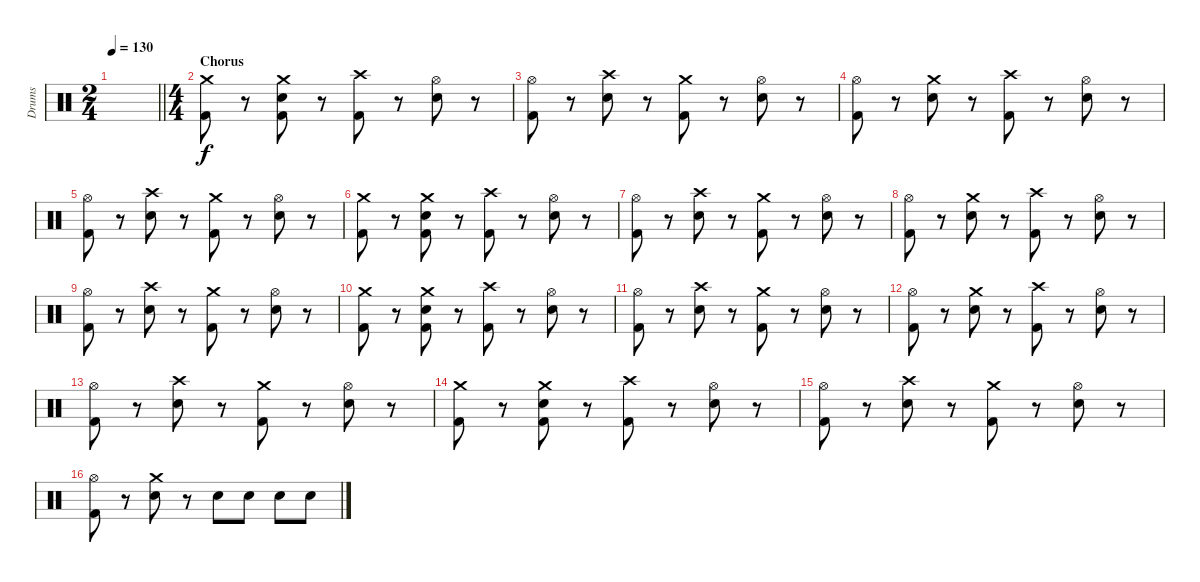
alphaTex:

\track ("Drums" "Drums") {instrument percussion}
\staff {score}
\articulation defaults
\ts (2 4)
\tempo 130
\clef neutral
\barLineRight lightlight
\ks c
|
\ts (4 4)
\section ("" "Chorus")
("Crash medium (hit)" "Kick (hit) 2").8 r.8 ("Crash medium (hit)" "Electric Snare (hit)" "Kick (hit) 2").8 r.8 ("Crash high (hit)" "Kick (hit) 2").8 r.8 ("Hi-Hat (open)" "Electric Snare (hit)").8 r.8 |
("Hi-Hat (open)" "Kick (hit) 2").8 r.8 ("Crash high (hit)" "Electric Snare (hit)").8 r.8 ("Crash medium (hit)" "Kick (hit) 2").8 r.8 ("Hi-Hat (open)" "Electric Snare (hit)").8 r.8 |
("Hi-Hat (open)" "Kick (hit) 2").8 r.8 ("Crash medium (hit)" "Electric Snare (hit)").8 r.8 ("Crash high (hit)" "Kick (hit) 2").8 r.8 ("Hi-Hat (open)" "Electric Snare (hit)").8 r.8 |
("Hi-Hat (open)" "Kick (hit) 2").8 r.8 ("Crash high (hit)" "Electric Snare (hit)").8 r.8 ("Crash medium (hit)" "Kick (hit) 2").8 r.8 ("Hi-Hat (open)" "Electric Snare (hit)").8 r.8 |
("Crash medium (hit)" "Kick (hit) 2").8 r.8 ("Crash medium (hit)" "Electric Snare (hit)" "Kick (hit) 2").8 r.8 ("Crash high (hit)" "Kick (hit) 2").8 r.8 ("Hi-Hat (open)" "Electric Snare (hit)").8 r.8 |
("Hi-Hat (open)" "Kick (hit) 2").8 r.8 ("Crash high (hit)" "Electric Snare (hit)").8 r.8 ("Crash medium (hit)" "Kick (hit) 2").8 r.8 ("Hi-Hat (open)" "Electric Snare (hit)").8 r.8 |
("Hi-Hat (open)" "Kick (hit) 2").8 r.8 ("Crash medium (hit)" "Electric Snare (hit)").8 r.8 ("Crash high (hit)" "Kick (hit) 2").8 r.8 ("Hi-Hat (open)" "Electric Snare (hit)").8 r.8 |
("Hi-Hat (open)" "Kick (hit) 2").8 r.8 ("Crash high (hit)" "Electric Snare (hit)").8 r.8 ("Crash medium (hit)" "Kick (hit) 2").8 r.8 ("Hi-Hat (open)" "Electric Snare (hit)").8 r.8 |
("Crash medium (hit)" "Kick (hit) 2").8 r.8 ("Crash medium (hit)" "Electric Snare (hit)" "Kick (hit) 2").8 r.8 ("Crash high (hit)" "Kick (hit) 2").8 r.8 ("Hi-Hat (open)" "Electric Snare (hit)").8 r.8 |
("Hi-Hat (open)" "Kick (hit) 2").8 r.8 ("Crash high (hit)" "Electric Snare (hit)").8 r.8 ("Crash medium (hit)" "Kick (hit) 2").8 r.8 ("Hi-Hat (open)" "Electric Snare (hit)").8 r.8 |
("Hi-Hat (open)" "Kick (hit) 2").8 r.8 ("Crash medium (hit)" "Electric Snare (hit)").8 r.8 ("Crash high (hit)" "Kick (hit) 2").8 r.8 ("Hi-Hat (open)" "Electric Snare (hit)").8 r.8 |
("Hi-Hat (open)" "Kick (hit) 2").8 r.8 ("Crash high (hit)" "Electric Snare (hit)").8 r.8 ("Crash medium (hit)" "Kick (hit) 2").8 r.8 ("Hi-Hat (open)" "Electric Snare (hit)").8 r.8 |
("Crash medium (hit)" "Kick (hit) 2").8 r.8 ("Crash medium (hit)" "Electric Snare (hit)" "Kick (hit) 2").8 r.8 ("Crash high (hit)" "Kick (hit) 2").8 r.8 ("Hi-Hat (open)" "Electric Snare (hit)").8 r.8 |
("Hi-Hat (open)" "Kick (hit) 2").8 r.8 ("Crash high (hit)" "Electric Snare (hit)").8 r.8 ("Crash medium (hit)" "Kick (hit) 2").8 r.8 ("Hi-Hat (open)" "Electric Snare (hit)").8 r.8 |
("Hi-Hat (open)" "Kick (hit) 2").8 r.8 ("Crash medium (hit)" "Electric Snare (hit)").8 r.8 "Electric Snare (hit)".8 "Electric Snare (hit)".8 "Electric Snare (hit)".8 "Electric Snare (hit)".8
